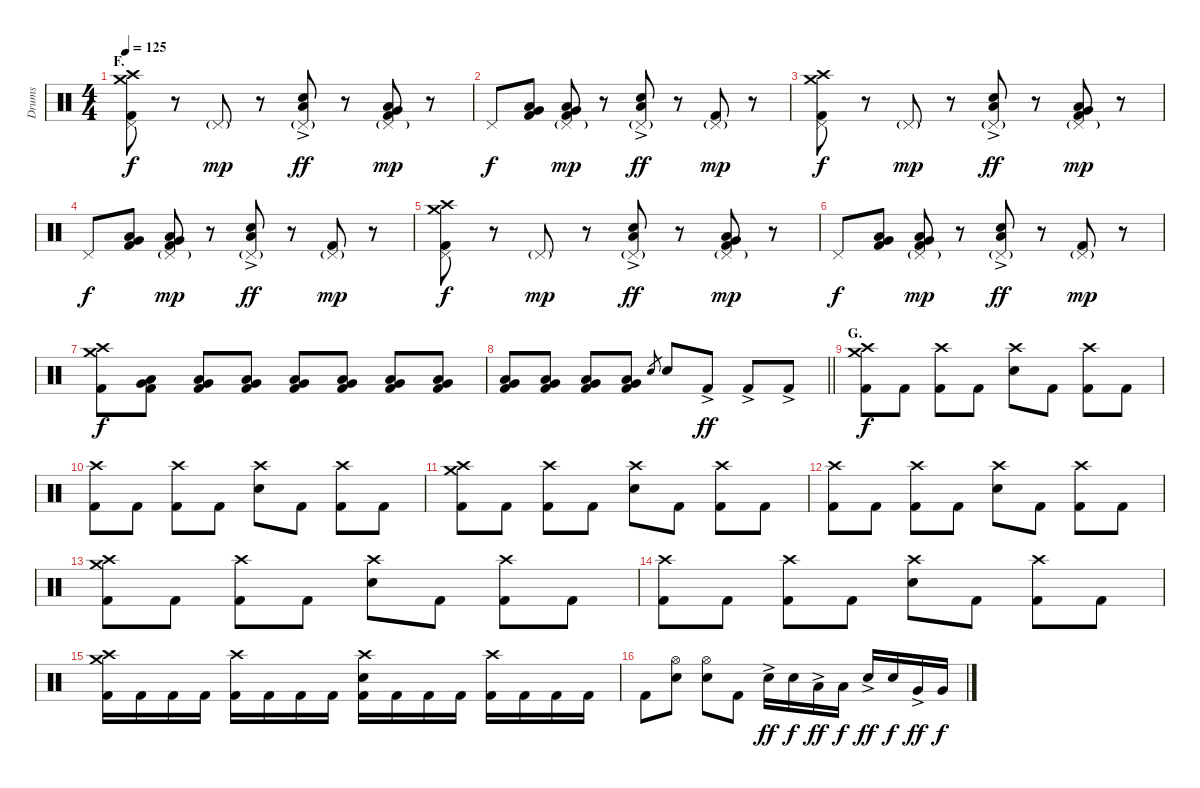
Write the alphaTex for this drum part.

\track ("Drums" "Drums") {instrument percussion}
\staff {score}
\articulation defaults
\ts (4 4)
\section ("" "F.")
\tempo 125
\clef neutral
\ks c
("Crash medium (hit)" "Crash high (hit)" "Pedal Hi-Hat (hit)" "Kick (hit) 2").8{dy f} r.8 "Pedal Hi-Hat (hit)"{g}.8{dy mp} r.8 ("Pedal Hi-Hat (hit)"{g} "Electric Snare (hit)" "Low Floor Tom (hit)"{ac}).8{dy ff} r.8 ("Pedal Hi-Hat (hit)"{g} "Very Low Tom (hit)" "Low Floor Tom (hit)" "Kick (hit) 2").8{dy mp} r.8 |
"Pedal Hi-Hat (hit)".8{dy f} ("Very Low Tom (hit)" "Low Floor Tom (hit)" "Kick (hit) 2").8 ("Pedal Hi-Hat (hit)"{g} "Very Low Tom (hit)" "Low Floor Tom (hit)" "Kick (hit) 2").8{dy mp} r.8 ("Pedal Hi-Hat (hit)"{g} "Electric Snare (hit)" "Low Floor Tom (hit)"{ac}).8{dy ff} r.8 ("Pedal Hi-Hat (hit)"{g} "Kick (hit) 2").8{dy mp} r.8 |
("Crash medium (hit)" "Crash high (hit)" "Pedal Hi-Hat (hit)" "Kick (hit) 2").8{dy f} r.8 "Pedal Hi-Hat (hit)"{g}.8{dy mp} r.8 ("Pedal Hi-Hat (hit)"{g} "Electric Snare (hit)" "Low Floor Tom (hit)"{ac}).8{dy ff} r.8 ("Pedal Hi-Hat (hit)"{g} "Very Low Tom (hit)" "Low Floor Tom (hit)" "Kick (hit) 2").8{dy mp} r.8 |
"Pedal Hi-Hat (hit)".8{dy f} ("Very Low Tom (hit)" "Low Floor Tom (hit)" "Kick (hit) 2").8 ("Pedal Hi-Hat (hit)"{g} "Very Low Tom (hit)" "Low Floor Tom (hit)" "Kick (hit) 2").8{dy mp} r.8 ("Pedal Hi-Hat (hit)"{g} "Electric Snare (hit)" "Low Floor Tom (hit)"{ac}).8{dy ff} r.8 ("Pedal Hi-Hat (hit)"{g} "Kick (hit) 2").8{dy mp} r.8 |
("Crash medium (hit)" "Crash high (hit)" "Pedal Hi-Hat (hit)" "Kick (hit) 2").8{dy f} r.8 "Pedal Hi-Hat (hit)"{g}.8{dy mp} r.8 ("Pedal Hi-Hat (hit)"{g} "Electric Snare (hit)" "Low Floor Tom (hit)"{ac}).8{dy ff} r.8 ("Pedal Hi-Hat (hit)"{g} "Very Low Tom (hit)" "Low Floor Tom (hit)" "Kick (hit) 2").8{dy mp} r.8 |
"Pedal Hi-Hat (hit)".8{dy f} ("Very Low Tom (hit)" "Low Floor Tom (hit)" "Kick (hit) 2").8 ("Pedal Hi-Hat (hit)"{g} "Very Low Tom (hit)" "Low Floor Tom (hit)" "Kick (hit) 2").8{dy mp} r.8 ("Pedal Hi-Hat (hit)"{g} "Electric Snare (hit)" "Low Floor Tom (hit)"{ac}).8{dy ff} r.8 ("Pedal Hi-Hat (hit)"{g} "Kick (hit) 2").8{dy mp} r.8 |
("Crash medium (hit)" "Crash high (hit)" "Kick (hit) 2").8{dy f} ("Very Low Tom (hit)" "Low Floor Tom (hit)" "Kick (hit) 2").8{volume 6} ("Very Low Tom (hit)" "Low Floor Tom (hit)" "Kick (hit) 2").8{volume 14} ("Very Low Tom (hit)" "Low Floor Tom (hit)" "Kick (hit) 2").8 ("Very Low Tom (hit)" "Low Floor Tom (hit)" "Kick (hit) 2").8 ("Very Low Tom (hit)" "Low Floor Tom (hit)" "Kick (hit) 2").8 ("Very Low Tom (hit)" "Low Floor Tom (hit)" "Kick (hit) 2").8 ("Very Low Tom (hit)" "Low Floor Tom (hit)" "Kick (hit) 2").8 |
\barLineRight lightlight
("Very Low Tom (hit)" "Low Floor Tom (hit)" "Kick (hit) 2").8 ("Very Low Tom (hit)" "Low Floor Tom (hit)" "Kick (hit) 2").8 ("Very Low Tom (hit)" "Low Floor Tom (hit)" "Kick (hit) 2").8 ("Very Low Tom (hit)" "Low Floor Tom (hit)" "Kick (hit) 2").8 "Electric Snare (hit)".8{gr} "Electric Snare (hit)".8 "Kick (hit) 2"{ac}.8{dy ff} "Kick (hit) 2"{ac}.8 "Kick (hit) 2"{ac}.8 |
\section ("" "G.")
("Crash medium (hit)" "Crash high (hit)" "Kick (hit) 2").8{dy f} "Kick (hit) 2".8 ("Crash high (hit)" "Kick (hit) 2").8 "Kick (hit) 2".8 ("Crash high (hit)" "Electric Snare (hit)").8 "Kick (hit) 2".8 ("Crash high (hit)" "Kick (hit) 2").8 "Kick (hit) 2".8 |
("Crash high (hit)" "Kick (hit) 2").8 "Kick (hit) 2".8 ("Crash high (hit)" "Kick (hit) 2").8 "Kick (hit) 2".8 ("Crash high (hit)" "Electric Snare (hit)").8 "Kick (hit) 2".8 ("Crash high (hit)" "Kick (hit) 2").8 "Kick (hit) 2".8 |
("Crash medium (hit)" "Crash high (hit)" "Kick (hit) 2").8 "Kick (hit) 2".8 ("Crash high (hit)" "Kick (hit) 2").8 "Kick (hit) 2".8 ("Crash high (hit)" "Electric Snare (hit)").8 "Kick (hit) 2".8 ("Crash high (hit)" "Kick (hit) 2").8 "Kick (hit) 2".8 |
("Crash high (hit)" "Kick (hit) 2").8 "Kick (hit) 2".8 ("Crash high (hit)" "Kick (hit) 2").8 "Kick (hit) 2".8 ("Crash high (hit)" "Electric Snare (hit)").8 "Kick (hit) 2".8 ("Crash high (hit)" "Kick (hit) 2").8 "Kick (hit) 2".8 |
("Crash medium (hit)" "Crash high (hit)" "Kick (hit) 2").8 "Kick (hit) 2".8 ("Crash high (hit)" "Kick (hit) 2").8 "Kick (hit) 2".8 ("Crash high (hit)" "Electric Snare (hit)").8 "Kick (hit) 2".8 ("Crash high (hit)" "Kick (hit) 2").8 "Kick (hit) 2".8 |
("Crash high (hit)" "Kick (hit) 2").8 "Kick (hit) 2".8 ("Crash high (hit)" "Kick (hit) 2").8 "Kick (hit) 2".8 ("Crash high (hit)" "Electric Snare (hit)").8 "Kick (hit) 2".8 ("Crash high (hit)" "Kick (hit) 2").8 "Kick (hit) 2".8 |
("Crash medium (hit)" "Crash high (hit)" "Kick (hit) 2").16 "Kick (hit) 2".16 "Kick (hit) 2".16 "Kick (hit) 2".16 ("Crash high (hit)" "Kick (hit) 2").16 "Kick (hit) 2".16 "Kick (hit) 2".16 "Kick (hit) 2".16 ("Crash high (hit)" "Electric Snare (hit)" "Kick (hit) 2").16 "Kick (hit) 2".16 "Kick (hit) 2".16 "Kick (hit) 2".16 ("Crash high (hit)" "Kick (hit) 2").16 "Kick (hit) 2".16 "Kick (hit) 2".16 "Kick (hit) 2".16 |
"Kick (hit) 2".8 ("Hi-Hat (open)" "Electric Snare (hit)").8 ("Hi-Hat (open)" "Electric Snare (hit)").8 "Kick (hit) 2".8 "Electric Snare (hit)"{ac}.16{dy ff} "Electric Snare (hit)".16{dy f} "Low Tom (hit)"{ac}.16{dy ff} "Low Tom (hit)".16{dy f} "Electric Snare (hit)"{ac}.16{dy ff} "Electric Snare (hit)".16{dy f} "Very Low Tom (hit)"{ac}.16{dy ff} "Very Low Tom (hit)".16{dy f}
